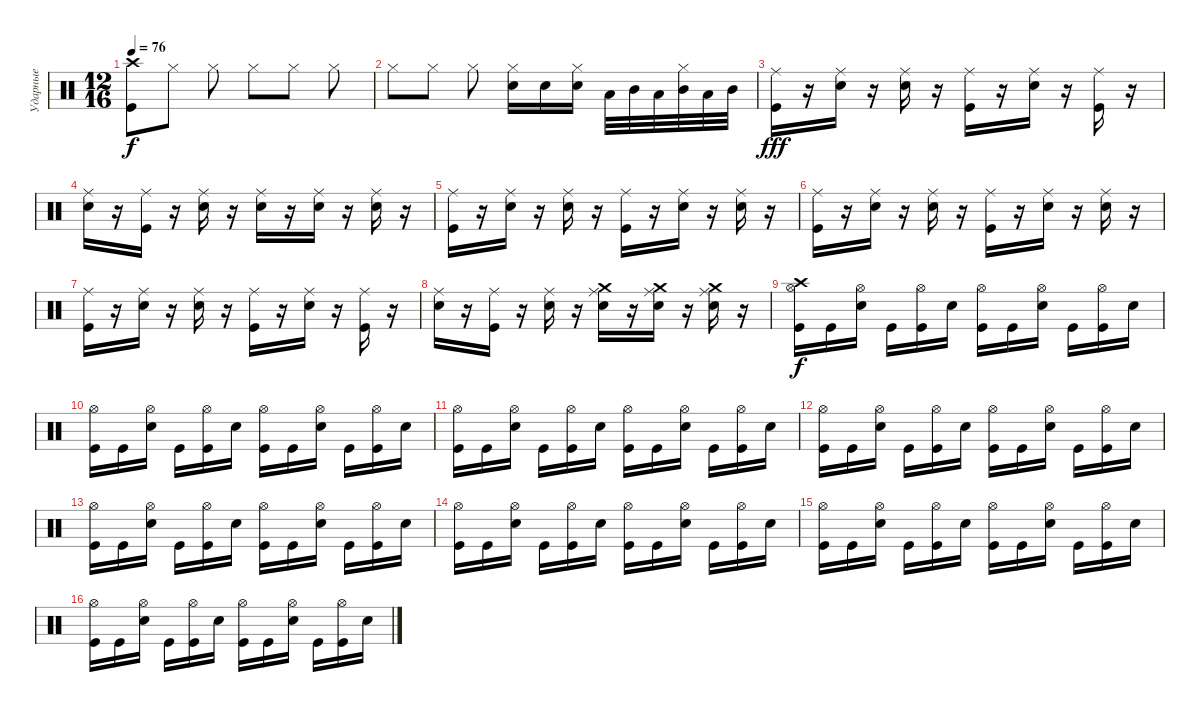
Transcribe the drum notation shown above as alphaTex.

\track ("Ударные" "Ударные") {instrument percussion}
\staff {score}
\articulation defaults
\ts (12 16)
\tempo 76
\clef neutral
\ks c
("Kick (hit)" "Crash high (hit)").8{dy f} "Hi-Hat (closed)".8 "Hi-Hat (closed)".8 "Hi-Hat (closed)".8 "Hi-Hat (closed)".8 "Hi-Hat (closed)".8 |
"Hi-Hat (closed)".8 "Hi-Hat (closed)".8 "Hi-Hat (closed)".8 ("Hi-Hat (closed)" "Electric Snare (hit)").16 "Electric Snare (hit)".16 ("Hi-Hat (closed)" "Electric Snare (hit)").16 "Low Tom (hit)".32 "Mid Tom (hit)".32 "Low Tom (hit)".32 ("Hi-Hat (closed)" "Mid Tom (hit)").32 "Low Tom (hit)".32 "Mid Tom (hit)".32 |
("Kick (hit)" "Ride (middle)").16{dy fff} r.16 ("Snare (hit) 2" "Ride (middle)").16 r.16 ("Snare (hit) 2" "Ride (middle)").16 r.16 ("Kick (hit)" "Ride (middle)").16 r.16 ("Snare (hit) 2" "Ride (middle)").16 r.16 ("Kick (hit)" "Ride (middle)").16 r.16 |
("Snare (hit) 2" "Ride (middle)").16 r.16 ("Kick (hit)" "Ride (middle)").16 r.16 ("Snare (hit) 2" "Ride (middle)").16 r.16 ("Snare (hit) 2" "Ride (middle)").16 r.16 ("Snare (hit) 2" "Ride (middle)").16 r.16 ("Snare (hit) 2" "Ride (middle)").16 r.16 |
("Kick (hit)" "Ride (middle)").16 r.16 ("Snare (hit) 2" "Ride (middle)").16 r.16 ("Snare (hit) 2" "Ride (middle)").16 r.16 ("Kick (hit)" "Ride (middle)").16 r.16 ("Snare (hit) 2" "Ride (middle)").16 r.16 ("Snare (hit) 2" "Ride (middle)").16 r.16 |
("Kick (hit)" "Ride (middle)").16 r.16 ("Snare (hit) 2" "Ride (middle)").16 r.16 ("Snare (hit) 2" "Ride (middle)").16 r.16 ("Kick (hit)" "Ride (middle)").16 r.16 ("Snare (hit) 2" "Ride (middle)").16 r.16 ("Snare (hit) 2" "Ride (middle)").16 r.16 |
("Kick (hit)" "Ride (middle)").16 r.16 ("Snare (hit) 2" "Ride (middle)").16 r.16 ("Snare (hit) 2" "Ride (middle)").16 r.16 ("Kick (hit)" "Ride (middle)").16 r.16 ("Snare (hit) 2" "Ride (middle)").16 r.16 ("Kick (hit)" "Ride (middle)").16 r.16 |
("Snare (hit) 2" "Ride (middle)").16 r.16 ("Kick (hit)" "Ride (middle)").16 r.16 ("Snare (hit) 2" "Ride (middle)").16 r.16 ("Snare (hit) 2" "Ride (middle)" "Crash medium (hit)").16 r.16 ("Snare (hit) 2" "Ride (middle)" "Crash medium (hit)").16 r.16 ("Snare (hit) 2" "Ride (middle)" "Crash medium (hit)").16 r.16 |
("Kick (hit)" "Crash high (hit)" "Hi-Hat (open)").16{dy f} "Kick (hit)".16 ("Snare (hit) 2" "Hi-Hat (open)").16 "Kick (hit)".16 ("Kick (hit)" "Hi-Hat (open)").16 "Snare (hit) 2".16 ("Kick (hit)" "Hi-Hat (open)").16 "Kick (hit)".16 ("Snare (hit) 2" "Hi-Hat (open)").16 "Kick (hit)".16 ("Kick (hit)" "Hi-Hat (open)").16 "Snare (hit) 2".16 |
("Kick (hit)" "Hi-Hat (open)").16 "Kick (hit)".16 ("Snare (hit) 2" "Hi-Hat (open)").16 "Kick (hit)".16 ("Kick (hit)" "Hi-Hat (open)").16 "Snare (hit) 2".16 ("Kick (hit)" "Hi-Hat (open)").16 "Kick (hit)".16 ("Snare (hit) 2" "Hi-Hat (open)").16 "Kick (hit)".16 ("Kick (hit)" "Hi-Hat (open)").16 "Snare (hit) 2".16 |
("Kick (hit)" "Hi-Hat (open)").16 "Kick (hit)".16 ("Snare (hit) 2" "Hi-Hat (open)").16 "Kick (hit)".16 ("Kick (hit)" "Hi-Hat (open)").16 "Snare (hit) 2".16 ("Kick (hit)" "Hi-Hat (open)").16 "Kick (hit)".16 ("Snare (hit) 2" "Hi-Hat (open)").16 "Kick (hit)".16 ("Kick (hit)" "Hi-Hat (open)").16 "Snare (hit) 2".16 |
("Kick (hit)" "Hi-Hat (open)").16 "Kick (hit)".16 ("Snare (hit) 2" "Hi-Hat (open)").16 "Kick (hit)".16 ("Kick (hit)" "Hi-Hat (open)").16 "Snare (hit) 2".16 ("Kick (hit)" "Hi-Hat (open)").16 "Kick (hit)".16 ("Snare (hit) 2" "Hi-Hat (open)").16 "Kick (hit)".16 ("Kick (hit)" "Hi-Hat (open)").16 "Snare (hit) 2".16 |
("Kick (hit)" "Hi-Hat (open)").16 "Kick (hit)".16 ("Snare (hit) 2" "Hi-Hat (open)").16 "Kick (hit)".16 ("Kick (hit)" "Hi-Hat (open)").16 "Snare (hit) 2".16 ("Kick (hit)" "Hi-Hat (open)").16 "Kick (hit)".16 ("Snare (hit) 2" "Hi-Hat (open)").16 "Kick (hit)".16 ("Kick (hit)" "Hi-Hat (open)").16 "Snare (hit) 2".16 |
("Kick (hit)" "Hi-Hat (open)").16 "Kick (hit)".16 ("Snare (hit) 2" "Hi-Hat (open)").16 "Kick (hit)".16 ("Kick (hit)" "Hi-Hat (open)").16 "Snare (hit) 2".16 ("Kick (hit)" "Hi-Hat (open)").16 "Kick (hit)".16 ("Snare (hit) 2" "Hi-Hat (open)").16 "Kick (hit)".16 ("Kick (hit)" "Hi-Hat (open)").16 "Snare (hit) 2".16 |
("Kick (hit)" "Hi-Hat (open)").16 "Kick (hit)".16 ("Snare (hit) 2" "Hi-Hat (open)").16 "Kick (hit)".16 ("Kick (hit)" "Hi-Hat (open)").16 "Snare (hit) 2".16 ("Kick (hit)" "Hi-Hat (open)").16 "Kick (hit)".16 ("Snare (hit) 2" "Hi-Hat (open)").16 "Kick (hit)".16 ("Kick (hit)" "Hi-Hat (open)").16 "Snare (hit) 2".16 |
("Kick (hit)" "Hi-Hat (open)").16 "Kick (hit)".16 ("Snare (hit) 2" "Hi-Hat (open)").16 "Kick (hit)".16 ("Kick (hit)" "Hi-Hat (open)").16 "Snare (hit) 2".16 ("Kick (hit)" "Hi-Hat (open)").16 "Kick (hit)".16 ("Snare (hit) 2" "Hi-Hat (open)").16 "Kick (hit)".16 ("Kick (hit)" "Hi-Hat (open)").16 "Snare (hit) 2".16
